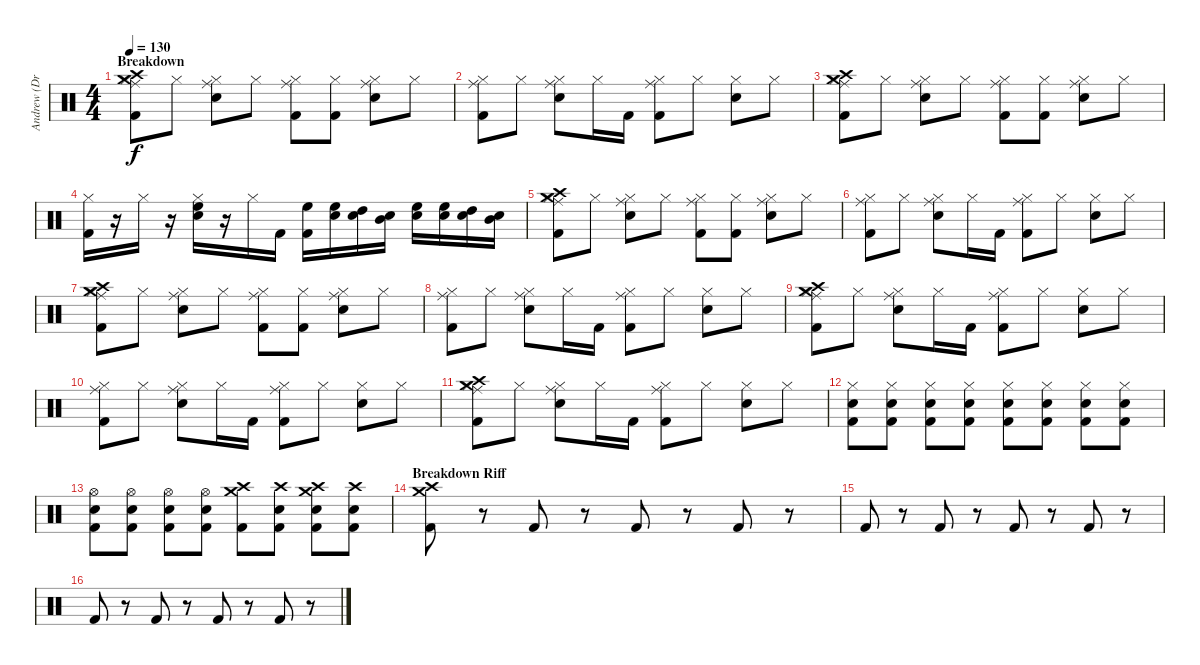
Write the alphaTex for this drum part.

\track ("Andrew (Drums)" "Andrew (Dr") {instrument percussion}
\staff {score}
\articulation defaults
\ts (4 4)
\section ("" "Breakdown")
\tempo 130
\clef neutral
\ks c
("Crash medium (hit)" "Crash high (hit)" "Hi-Hat (closed)" "Ride (middle)" "Kick (hit) 2").8{dy f} "Hi-Hat (closed)".8 ("Hi-Hat (closed)" "Ride (middle)" "Snare (hit) 2").8 "Hi-Hat (closed)".8 ("Hi-Hat (closed)" "Ride (middle)" "Kick (hit) 2").8 ("Hi-Hat (closed)" "Kick (hit) 2").8 ("Hi-Hat (closed)" "Ride (middle)" "Snare (hit) 2").8 "Hi-Hat (closed)".8 |
("Hi-Hat (closed)" "Ride (middle)" "Kick (hit) 2").8 "Hi-Hat (closed)".8 ("Hi-Hat (closed)" "Ride (middle)" "Snare (hit) 2").8 "Hi-Hat (closed)".16 "Kick (hit) 2".16 ("Hi-Hat (closed)" "Ride (middle)" "Kick (hit) 2").8 "Hi-Hat (closed)".8 ("Hi-Hat (closed)" "Snare (hit) 2").8 "Hi-Hat (closed)".8 |
("Crash medium (hit)" "Crash high (hit)" "Hi-Hat (closed)" "Ride (middle)" "Kick (hit) 2").8 "Hi-Hat (closed)".8 ("Hi-Hat (closed)" "Ride (middle)" "Snare (hit) 2").8 "Hi-Hat (closed)".8 ("Hi-Hat (closed)" "Ride (middle)" "Kick (hit) 2").8 ("Hi-Hat (closed)" "Kick (hit) 2").8 ("Hi-Hat (closed)" "Ride (middle)" "Snare (hit) 2").8 "Hi-Hat (closed)".8 |
("Hi-Hat (closed)" "Kick (hit) 2").16 r.16 "Hi-Hat (closed)".16 r.16 ("Hi-Hat (closed)" "High Floor Tom (hit)" "Snare (hit) 2").16 r.16 "Hi-Hat (closed)".16 "Kick (hit) 2".16 ("High Floor Tom (hit)" "Kick (hit) 2").16 ("High Floor Tom (hit)" "Snare (hit) 2").16 ("High Tom (hit)" "Snare (hit) 2").16 ("Mid Tom (hit)" "Snare (hit) 2").16 ("High Floor Tom (hit)" "Snare (hit) 2").16 ("High Floor Tom (hit)" "Snare (hit) 2").16 ("High Tom (hit)" "Snare (hit) 2").16 ("Mid Tom (hit)" "Snare (hit) 2").16 |
("Crash medium (hit)" "Crash high (hit)" "Hi-Hat (closed)" "Ride (middle)" "Kick (hit) 2").8 "Hi-Hat (closed)".8 ("Hi-Hat (closed)" "Ride (middle)" "Snare (hit) 2").8 "Hi-Hat (closed)".8 ("Hi-Hat (closed)" "Ride (middle)" "Kick (hit) 2").8 ("Hi-Hat (closed)" "Kick (hit) 2").8 ("Hi-Hat (closed)" "Ride (middle)" "Snare (hit) 2").8 "Hi-Hat (closed)".8 |
("Hi-Hat (closed)" "Ride (middle)" "Kick (hit) 2").8 "Hi-Hat (closed)".8 ("Hi-Hat (closed)" "Ride (middle)" "Snare (hit) 2").8 "Hi-Hat (closed)".16 "Kick (hit) 2".16 ("Hi-Hat (closed)" "Ride (middle)" "Kick (hit) 2").8 "Hi-Hat (closed)".8 ("Hi-Hat (closed)" "Snare (hit) 2").8 "Hi-Hat (closed)".8 |
("Crash medium (hit)" "Crash high (hit)" "Hi-Hat (closed)" "Ride (middle)" "Kick (hit) 2").8 "Hi-Hat (closed)".8 ("Hi-Hat (closed)" "Ride (middle)" "Snare (hit) 2").8 "Hi-Hat (closed)".8 ("Hi-Hat (closed)" "Ride (middle)" "Kick (hit) 2").8 ("Hi-Hat (closed)" "Kick (hit) 2").8 ("Hi-Hat (closed)" "Ride (middle)" "Snare (hit) 2").8 "Hi-Hat (closed)".8 |
("Hi-Hat (closed)" "Ride (middle)" "Kick (hit) 2").8 "Hi-Hat (closed)".8 ("Hi-Hat (closed)" "Ride (middle)" "Snare (hit) 2").8 "Hi-Hat (closed)".16 "Kick (hit) 2".16 ("Hi-Hat (closed)" "Ride (middle)" "Kick (hit) 2").8 "Hi-Hat (closed)".8 ("Hi-Hat (closed)" "Snare (hit) 2").8 "Hi-Hat (closed)".8 |
("Crash high (hit)" "Crash medium (hit)" "Hi-Hat (closed)" "Ride (middle)" "Kick (hit) 2").8 "Hi-Hat (closed)".8 ("Hi-Hat (closed)" "Ride (middle)" "Snare (hit) 2").8 "Hi-Hat (closed)".16 "Kick (hit) 2".16 ("Hi-Hat (closed)" "Ride (middle)" "Kick (hit) 2").8 "Hi-Hat (closed)".8 ("Hi-Hat (closed)" "Snare (hit) 2").8 "Hi-Hat (closed)".8 |
("Hi-Hat (closed)" "Ride (middle)" "Kick (hit) 2").8 "Hi-Hat (closed)".8 ("Hi-Hat (closed)" "Ride (middle)" "Snare (hit) 2").8 "Hi-Hat (closed)".16 "Kick (hit) 2".16 ("Hi-Hat (closed)" "Ride (middle)" "Kick (hit) 2").8 "Hi-Hat (closed)".8 ("Hi-Hat (closed)" "Snare (hit) 2").8 "Hi-Hat (closed)".8 |
("Crash high (hit)" "Crash medium (hit)" "Hi-Hat (closed)" "Ride (middle)" "Kick (hit) 2").8 "Hi-Hat (closed)".8 ("Hi-Hat (closed)" "Ride (middle)" "Snare (hit) 2").8 "Hi-Hat (closed)".16 "Kick (hit) 2".16 ("Hi-Hat (closed)" "Ride (middle)" "Kick (hit) 2").8 "Hi-Hat (closed)".8 ("Hi-Hat (closed)" "Snare (hit) 2").8 "Hi-Hat (closed)".8 |
("Hi-Hat (closed)" "Snare (hit) 2" "Kick (hit) 2").8 ("Hi-Hat (closed)" "Snare (hit) 2" "Kick (hit) 2").8 ("Hi-Hat (closed)" "Snare (hit) 2" "Kick (hit) 2").8 ("Hi-Hat (closed)" "Snare (hit) 2" "Kick (hit) 2").8 ("Hi-Hat (closed)" "Snare (hit) 2" "Kick (hit) 2").8 ("Hi-Hat (closed)" "Snare (hit) 2" "Kick (hit) 2").8 ("Hi-Hat (closed)" "Snare (hit) 2" "Kick (hit) 2").8 ("Hi-Hat (closed)" "Snare (hit) 2" "Kick (hit) 2").8 |
("Hi-Hat (open)" "Snare (hit) 2" "Kick (hit) 2").8 ("Hi-Hat (open)" "Snare (hit) 2" "Kick (hit) 2").8 ("Hi-Hat (open)" "Snare (hit) 2" "Kick (hit) 2").8 ("Hi-Hat (open)" "Snare (hit) 2" "Kick (hit) 2").8 ("Crash medium (hit)" "Crash high (hit)" "Kick (hit) 2").8 ("Crash high (hit)" "Snare (hit) 2" "Kick (hit) 2").8 ("Crash medium (hit)" "Crash high (hit)" "Snare (hit) 2" "Kick (hit) 2").8 ("Crash high (hit)" "Snare (hit) 2" "Kick (hit) 2").8 |
\section ("" "Breakdown Riff")
("Crash medium (hit)" "Crash high (hit)" "Kick (hit) 2").8 r.8 "Kick (hit) 2".8 r.8 "Kick (hit) 2".8 r.8 "Kick (hit) 2".8 r.8 |
"Kick (hit) 2".8 r.8 "Kick (hit) 2".8 r.8 "Kick (hit) 2".8 r.8 "Kick (hit) 2".8 r.8 |
"Kick (hit) 2".8 r.8 "Kick (hit) 2".8 r.8 "Kick (hit) 2".8 r.8 "Kick (hit) 2".8 r.8
